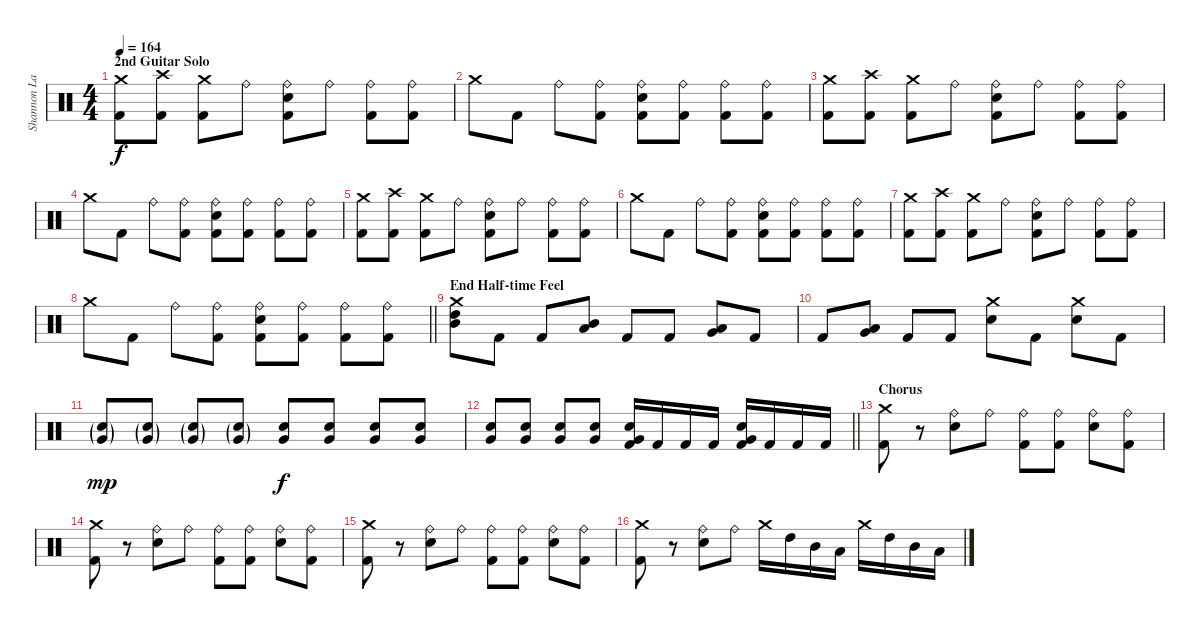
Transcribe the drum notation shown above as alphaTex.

\track ("Shannon Larkin" "Shannon La") {instrument percussion}
\staff {score}
\articulation defaults
\ts (4 4)
\section ("" "2nd Guitar Solo")
\tempo 164
\clef neutral
\ks c
("Crash medium (hit)" "Kick (hit) 2").8{dy f} ("Crash high (hit)" "Kick (hit) 2").8 ("Crash medium (hit)" "Kick (hit) 2").8 "Ride (bell)".8 ("Ride (bell)" "Electric Snare (hit)" "Kick (hit) 2").8 "Ride (bell)".8 ("Ride (bell)" "Kick (hit) 2").8 ("Ride (bell)" "Kick (hit) 2").8 |
"Crash medium (hit)".8 "Kick (hit) 2".8 "Ride (bell)".8 ("Ride (bell)" "Kick (hit) 2").8 ("Ride (bell)" "Electric Snare (hit)" "Kick (hit) 2").8 ("Ride (bell)" "Kick (hit) 2").8 ("Ride (bell)" "Kick (hit) 2").8 ("Ride (bell)" "Kick (hit) 2").8 |
("Crash medium (hit)" "Kick (hit) 2").8 ("Crash high (hit)" "Kick (hit) 2").8 ("Crash medium (hit)" "Kick (hit) 2").8 "Ride (bell)".8 ("Ride (bell)" "Electric Snare (hit)" "Kick (hit) 2").8 "Ride (bell)".8 ("Ride (bell)" "Kick (hit) 2").8 ("Ride (bell)" "Kick (hit) 2").8 |
"Crash medium (hit)".8 "Kick (hit) 2".8 "Ride (bell)".8 ("Ride (bell)" "Kick (hit) 2").8 ("Ride (bell)" "Electric Snare (hit)" "Kick (hit) 2").8 ("Ride (bell)" "Kick (hit) 2").8 ("Ride (bell)" "Kick (hit) 2").8 ("Ride (bell)" "Kick (hit) 2").8 |
("Crash medium (hit)" "Kick (hit) 2").8 ("Crash high (hit)" "Kick (hit) 2").8 ("Crash medium (hit)" "Kick (hit) 2").8 "Ride (bell)".8 ("Ride (bell)" "Electric Snare (hit)" "Kick (hit) 2").8 "Ride (bell)".8 ("Ride (bell)" "Kick (hit) 2").8 ("Ride (bell)" "Kick (hit) 2").8 |
"Crash medium (hit)".8 "Kick (hit) 2".8 "Ride (bell)".8 ("Ride (bell)" "Kick (hit) 2").8 ("Ride (bell)" "Electric Snare (hit)" "Kick (hit) 2").8 ("Ride (bell)" "Kick (hit) 2").8 ("Ride (bell)" "Kick (hit) 2").8 ("Ride (bell)" "Kick (hit) 2").8 |
("Crash medium (hit)" "Kick (hit) 2").8 ("Crash high (hit)" "Kick (hit) 2").8 ("Crash medium (hit)" "Kick (hit) 2").8 "Ride (bell)".8 ("Ride (bell)" "Electric Snare (hit)" "Kick (hit) 2").8 "Ride (bell)".8 ("Ride (bell)" "Kick (hit) 2").8 ("Ride (bell)" "Kick (hit) 2").8 |
\barLineRight lightlight "Crash medium (hit)".8 "Kick (hit) 2".8 "Ride (bell)".8
("Ride (bell)" "Kick (hit) 2").8 ("Ride (bell)" "Electric Snare (hit)" "Kick (hit) 2").8 ("Ride (bell)" "Kick (hit) 2").8 ("Ride (bell)" "Kick (hit) 2").8 ("Ride (bell)" "Kick (hit) 2").8 |
\section ("" "End Half-time Feel")
("Crash medium (hit)" "High Tom (hit)" "Mid Tom (hit)").8 "Kick (hit) 2".8 "Kick (hit) 2".8 ("Mid Tom (hit)" "Low Tom (hit)").8 "Kick (hit) 2".8 "Kick (hit) 2".8 ("Low Tom (hit)" "Very Low Tom (hit)").8 "Kick (hit) 2".8 |
"Kick (hit) 2".8 ("Very Low Tom (hit)" "Low Floor Tom (hit)").8 "Kick (hit) 2".8 "Kick (hit) 2".8 ("Crash medium (hit)" "Electric Snare (hit)").8 "Kick (hit) 2".8 ("Crash medium (hit)" "Electric Snare (hit)").8 "Kick (hit) 2".8 |
("Electric Snare (hit)"{g} "Very Low Tom (hit)"{g}).8{dy mp} ("Electric Snare (hit)"{g} "Very Low Tom (hit)"{g}).8 ("Electric Snare (hit)"{g} "Very Low Tom (hit)"{g}).8 ("Electric Snare (hit)"{g} "Very Low Tom (hit)"{g}).8 ("Electric Snare (hit)" "Very Low Tom (hit)").8{dy f} ("Electric Snare (hit)" "Very Low Tom (hit)").8 ("Electric Snare (hit)" "Very Low Tom (hit)").8 ("Electric Snare (hit)" "Very Low Tom (hit)").8 |
\barLineRight lightlight
("Electric Snare (hit)" "Very Low Tom (hit)").8 ("Electric Snare (hit)" "Very Low Tom (hit)").8 ("Electric Snare (hit)" "Very Low Tom (hit)").8 ("Electric Snare (hit)" "Very Low Tom (hit)").8 ("Electric Snare (hit)" "Very Low Tom (hit)" "Kick (hit) 2").16 "Kick (hit) 2".16 "Kick (hit) 2".16 "Kick (hit) 2".16 ("Electric Snare (hit)" "Very Low Tom (hit)" "Kick (hit) 2").16 "Kick (hit) 2".16 "Kick (hit) 2".16 "Kick (hit) 2".16 |
\section ("" "Chorus")
("Crash medium (hit)" "Kick (hit) 2").8 r.8 ("Ride (bell)" "Electric Snare (hit)").8 "Ride (bell)".8 ("Ride (bell)" "Kick (hit) 2").8 ("Ride (bell)" "Kick (hit) 2").8 ("Ride (bell)" "Electric Snare (hit)").8 ("Ride (bell)" "Kick (hit) 2").8 |
("Crash medium (hit)" "Kick (hit) 2").8 r.8 ("Ride (bell)" "Electric Snare (hit)").8 "Ride (bell)".8 ("Ride (bell)" "Kick (hit) 2").8 ("Ride (bell)" "Kick (hit) 2").8 ("Ride (bell)" "Electric Snare (hit)").8 ("Ride (bell)" "Kick (hit) 2").8 |
("Crash medium (hit)" "Kick (hit) 2").8 r.8 ("Ride (bell)" "Electric Snare (hit)").8 "Ride (bell)".8 ("Ride (bell)" "Kick (hit) 2").8 ("Ride (bell)" "Kick (hit) 2").8 ("Ride (bell)" "Electric Snare (hit)").8 ("Ride (bell)" "Kick (hit) 2").8 |
("Crash medium (hit)" "Kick (hit) 2").8 r.8 ("Ride (bell)" "Electric Snare (hit)").8 "Ride (bell)".8 "Crash medium (hit)".16 "High Tom (hit)".16 "Mid Tom (hit)".16 "Low Tom (hit)".16 "Crash medium (hit)".16 "High Tom (hit)".16 "Mid Tom (hit)".16 "Low Tom (hit)".16
